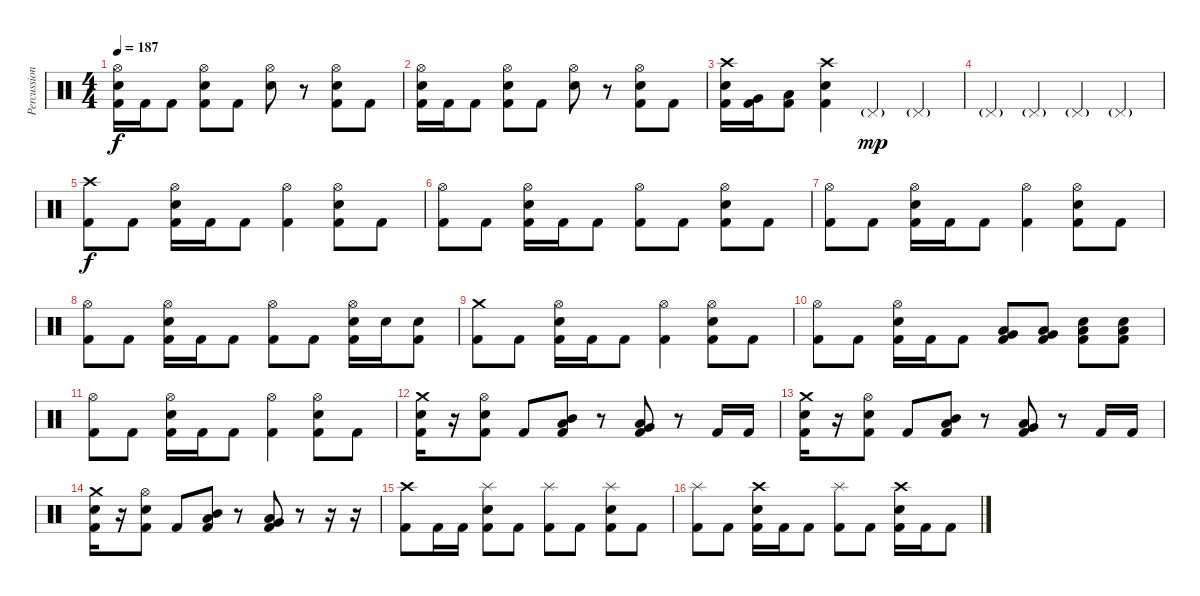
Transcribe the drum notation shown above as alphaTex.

\track ("Percussion" "Percussion") {instrument percussion}
\staff {score}
\articulation defaults
\ts (4 4)
\tempo 187
\clef neutral
\ks c
("Hi-Hat (open)" "Electric Snare (hit)" "Kick (hit) 2").16{dy f} "Kick (hit) 2".16 "Kick (hit) 2".8 ("Hi-Hat (open)" "Electric Snare (hit)" "Kick (hit) 2").8 "Kick (hit) 2".8 ("Hi-Hat (open)" "Electric Snare (hit)").8 r.8 ("Hi-Hat (open)" "Electric Snare (hit)" "Kick (hit) 2").8 "Kick (hit) 2".8 |
("Hi-Hat (open)" "Electric Snare (hit)" "Kick (hit) 2").16 "Kick (hit) 2".16 "Kick (hit) 2".8 ("Hi-Hat (open)" "Electric Snare (hit)" "Kick (hit) 2").8 "Kick (hit) 2".8 ("Hi-Hat (open)" "Electric Snare (hit)").8 r.8 ("Hi-Hat (open)" "Electric Snare (hit)" "Kick (hit) 2").8 "Kick (hit) 2".8 |
("Crash high (hit)" "Electric Snare (hit)" "Kick (hit) 2").16 ("Very Low Tom (hit)" "Kick (hit) 2").16 ("Low Floor Tom (hit)" "Kick (hit) 2").8 ("Crash high (hit)" "Electric Snare (hit)" "Kick (hit) 2").4 "Pedal Hi-Hat (hit)"{g}.4{dy mp} "Pedal Hi-Hat (hit)"{g}.4 |
"Pedal Hi-Hat (hit)"{g}.4 "Pedal Hi-Hat (hit)"{g}.4 "Pedal Hi-Hat (hit)"{g}.4 "Pedal Hi-Hat (hit)"{g}.4 |
("Crash high (hit)" "Kick (hit) 2").8{dy f} "Kick (hit) 2".8 ("Hi-Hat (open)" "Electric Snare (hit)" "Kick (hit) 2").16 "Kick (hit) 2".16 "Kick (hit) 2".8 ("Hi-Hat (open)" "Kick (hit) 2").4 ("Hi-Hat (open)" "Electric Snare (hit)" "Kick (hit) 2").8 "Kick (hit) 2".8 |
("Hi-Hat (open)" "Kick (hit) 2").8 "Kick (hit) 2".8 ("Hi-Hat (open)" "Electric Snare (hit)" "Kick (hit) 2").16 "Kick (hit) 2".16 "Kick (hit) 2".8 ("Hi-Hat (open)" "Kick (hit) 2").8 "Kick (hit) 2".8 ("Hi-Hat (open)" "Electric Snare (hit)" "Kick (hit) 2").8 "Kick (hit) 2".8 |
("Hi-Hat (open)" "Kick (hit) 2").8 "Kick (hit) 2".8 ("Hi-Hat (open)" "Electric Snare (hit)" "Kick (hit) 2").16 "Kick (hit) 2".16 "Kick (hit) 2".8 ("Hi-Hat (open)" "Kick (hit) 2").4 ("Hi-Hat (open)" "Electric Snare (hit)" "Kick (hit) 2").8 "Kick (hit) 2".8 |
("Hi-Hat (open)" "Kick (hit) 2").8 "Kick (hit) 2".8 ("Hi-Hat (open)" "Electric Snare (hit)" "Kick (hit) 2").16 "Kick (hit) 2".16 "Kick (hit) 2".8 ("Hi-Hat (open)" "Kick (hit) 2").8 "Kick (hit) 2".8 ("Hi-Hat (open)" "Electric Snare (hit)" "Kick (hit) 2").16 "Electric Snare (hit)".16 ("Electric Snare (hit)" "Kick (hit) 2").8 |
("Crash medium (hit)" "Kick (hit) 2").8 "Kick (hit) 2".8 ("Hi-Hat (open)" "Electric Snare (hit)" "Kick (hit) 2").16 "Kick (hit) 2".16 "Kick (hit) 2".8 ("Hi-Hat (open)" "Kick (hit) 2").4 ("Hi-Hat (open)" "Electric Snare (hit)" "Kick (hit) 2").8 "Kick (hit) 2".8 |
("Hi-Hat (open)" "Kick (hit) 2").8 "Kick (hit) 2".8 ("Hi-Hat (open)" "Electric Snare (hit)" "Kick (hit) 2").16 "Kick (hit) 2".16 "Kick (hit) 2".8 ("Low Tom (hit)" "Very Low Tom (hit)" "Kick (hit) 2").8 ("Low Tom (hit)" "Very Low Tom (hit)" "Kick (hit) 2").8 ("Low Floor Tom (hit)" "Electric Snare (hit)" "Kick (hit) 2").8 ("Low Floor Tom (hit)" "Electric Snare (hit)" "Kick (hit) 2").8 |
("Hi-Hat (open)" "Kick (hit) 2").8 "Kick (hit) 2".8 ("Hi-Hat (open)" "Electric Snare (hit)" "Kick (hit) 2").16 "Kick (hit) 2".16 "Kick (hit) 2".8 ("Hi-Hat (open)" "Kick (hit) 2").4 ("Hi-Hat (open)" "Electric Snare (hit)" "Kick (hit) 2").8 "Kick (hit) 2".8 |
("Crash medium (hit)" "Electric Snare (hit)" "Kick (hit) 2").16 r.16 ("Hi-Hat (open)" "Electric Snare (hit)" "Kick (hit) 2").8 "Kick (hit) 2".8 ("Mid Tom (hit)" "Low Tom (hit)" "Kick (hit) 2").8 r.8 ("Very Low Tom (hit)" "Low Floor Tom (hit)" "Kick (hit) 2").8 r.8 "Kick (hit) 2".16 "Kick (hit) 2".16 |
("Crash medium (hit)" "Electric Snare (hit)" "Kick (hit) 2").16 r.16 ("Hi-Hat (open)" "Electric Snare (hit)" "Kick (hit) 2").8 "Kick (hit) 2".8 ("Mid Tom (hit)" "Low Tom (hit)" "Kick (hit) 2").8 r.8 ("Very Low Tom (hit)" "Low Floor Tom (hit)" "Kick (hit) 2").8 r.8 "Kick (hit) 2".16 "Kick (hit) 2".16 |
("Crash medium (hit)" "Electric Snare (hit)" "Kick (hit) 2").16 r.16 ("Hi-Hat (open)" "Electric Snare (hit)" "Kick (hit) 2").8 "Kick (hit) 2".8 ("Mid Tom (hit)" "Low Tom (hit)" "Kick (hit) 2").8 r.8 ("Very Low Tom (hit)" "Low Floor Tom (hit)" "Kick (hit) 2").8 r.8 r.16 r.16 |
("Crash high (hit)" "Kick (hit) 2").8 "Kick (hit) 2".16 "Kick (hit) 2".16 ("Splash (hit)" "Electric Snare (hit)" "Kick (hit) 2").8 "Kick (hit) 2".8 ("Splash (hit)" "Kick (hit) 2").8 "Kick (hit) 2".8 ("Splash (hit)" "Electric Snare (hit)" "Kick (hit) 2").8 "Kick (hit) 2".8 |
("Splash (hit)" "Kick (hit) 2").8 "Kick (hit) 2".8 ("Crash high (hit)" "Electric Snare (hit)" "Kick (hit) 2").16 "Kick (hit) 2".16 "Kick (hit) 2".8 ("Splash (hit)" "Kick (hit) 2").8 "Kick (hit) 2".8 ("Crash high (hit)" "Electric Snare (hit)" "Kick (hit) 2").16 "Kick (hit) 2".16 "Kick (hit) 2".8
